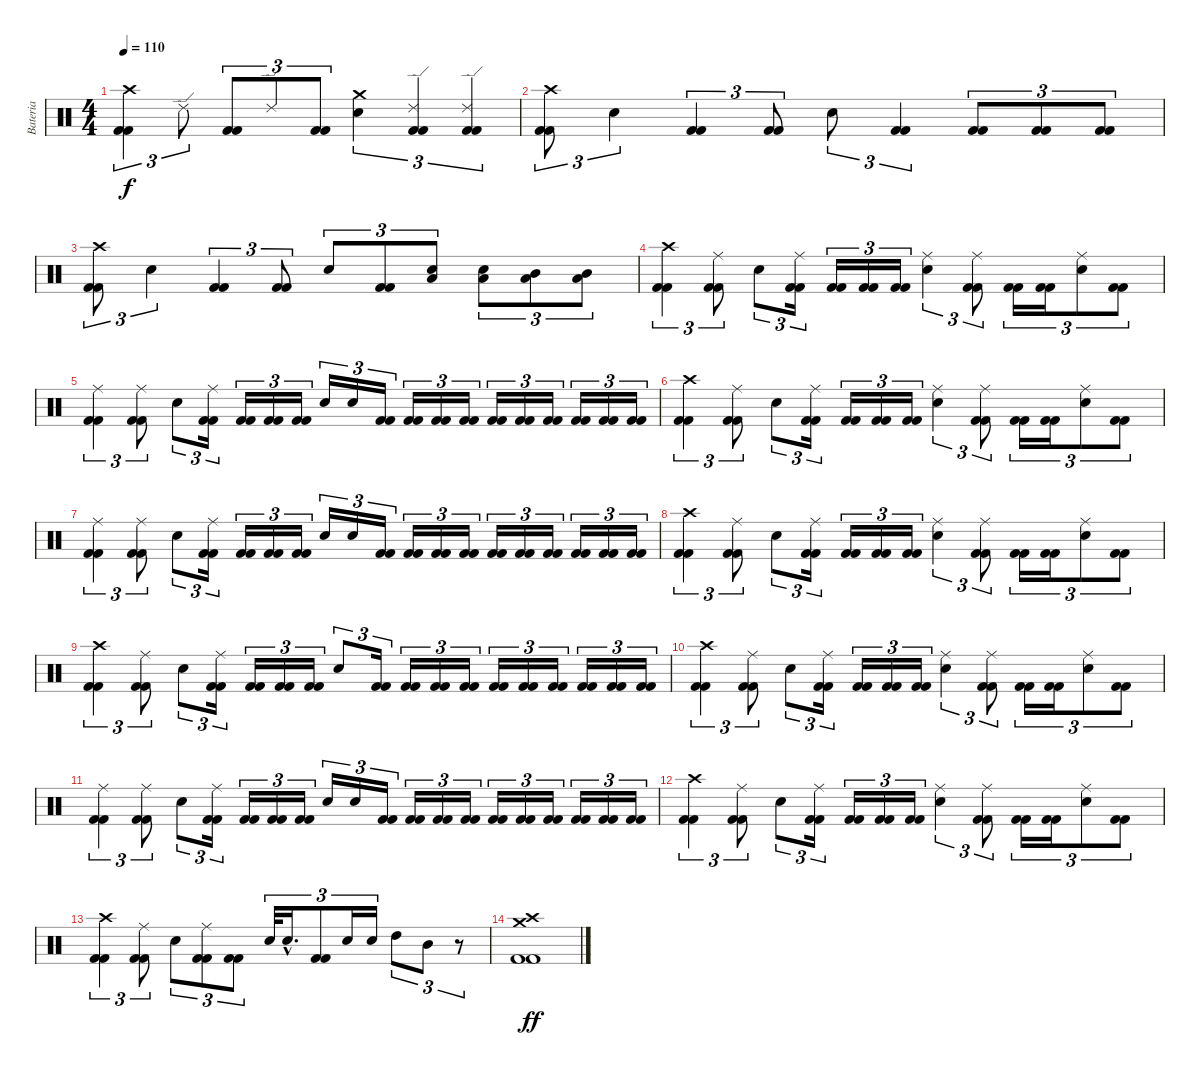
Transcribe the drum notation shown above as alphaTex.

\track ("Bateria" "Bateria") {instrument percussion}
\staff {score}
\articulation defaults
\ts (4 4)
\tempo 110
\clef neutral
\ks c
("Crash high (hit)" "Kick (hit) 2" "Kick (hit) 2").4{tu (3 2) dy f} "Ride (edge) 2".8{tu (3 2)} ("Kick (hit) 2" "Kick (hit) 2").8{tu (3 2)} "Ride (edge) 2".8{tu (3 2)} ("Kick (hit) 2" "Kick (hit) 2").8{tu (3 2)} ("Crash medium (hit)" "Electric Snare (hit)").4{tu (3 2)} ("Ride (edge) 2" "Kick (hit) 2" "Kick (hit) 2").4{tu (3 2)} ("Ride (edge) 2" "Kick (hit) 2" "Kick (hit) 2").4{tu (3 2)} |
("Crash high (hit)" "Kick (hit) 2" "Kick (hit) 2").8{tu (3 2)} "Electric Snare (hit)".4{tu (3 2)} ("Kick (hit) 2" "Kick (hit) 2").4{tu (3 2)} ("Kick (hit) 2" "Kick (hit) 2").8{tu (3 2)} "Electric Snare (hit)".8{tu (3 2)} ("Kick (hit) 2" "Kick (hit) 2").4{tu (3 2)} ("Kick (hit) 2" "Kick (hit) 2").8{tu (3 2)} ("Kick (hit) 2" "Kick (hit) 2").8{tu (3 2)} ("Kick (hit) 2" "Kick (hit) 2").8{tu (3 2)} |
("Crash high (hit)" "Kick (hit) 2" "Kick (hit) 2").8{tu (3 2)} "Electric Snare (hit)".4{tu (3 2)} ("Kick (hit) 2" "Kick (hit) 2").4{tu (3 2)} ("Kick (hit) 2" "Kick (hit) 2").8{tu (3 2)} "Electric Snare (hit)".8{tu (3 2)} ("Kick (hit) 2" "Kick (hit) 2").8{tu (3 2)} ("Electric Snare (hit)" "Low Tom (hit)").8{tu (3 2)} ("Electric Snare (hit)" "Low Tom (hit)").8{tu (3 2)} ("Low Tom (hit)" "Mid Tom (hit)").8{tu (3 2)} ("Low Tom (hit)" "Mid Tom (hit)").8{tu (3 2)} |
("Crash high (hit)" "Kick (hit) 2" "Kick (hit) 2").4{tu (3 2)} ("Ride (middle)" "Kick (hit) 2" "Kick (hit) 2").8{tu (3 2)} "Electric Snare (hit)".8{tu (3 2)} ("Ride (middle)" "Kick (hit) 2" "Kick (hit) 2").16{tu (3 2)} ("Kick (hit) 2" "Kick (hit) 2").16{tu (3 2)} ("Kick (hit) 2" "Kick (hit) 2").16{tu (3 2)} ("Kick (hit) 2" "Kick (hit) 2").16{tu (3 2)} ("Ride (middle)" "Electric Snare (hit)").4{tu (3 2)} ("Ride (middle)" "Kick (hit) 2" "Kick (hit) 2").8{tu (3 2)} ("Kick (hit) 2" "Kick (hit) 2").16{tu (3 2)} ("Kick (hit) 2" "Kick (hit) 2").16{tu (3 2)} ("Ride (middle)" "Electric Snare (hit)").8{tu (3 2)} ("Kick (hit) 2" "Kick (hit) 2").8{tu (3 2)} |
("Ride (middle)" "Kick (hit) 2" "Kick (hit) 2").4{tu (3 2)} ("Ride (middle)" "Kick (hit) 2" "Kick (hit) 2").8{tu (3 2)} "Electric Snare (hit)".8{tu (3 2)} ("Ride (middle)" "Kick (hit) 2" "Kick (hit) 2").16{tu (3 2)} ("Kick (hit) 2" "Kick (hit) 2").16{tu (3 2)} ("Kick (hit) 2" "Kick (hit) 2").16{tu (3 2)} ("Kick (hit) 2" "Kick (hit) 2").16{tu (3 2)} "Electric Snare (hit)".16{tu (3 2)} "Electric Snare (hit)".16{tu (3 2)} ("Kick (hit) 2" "Kick (hit) 2").16{tu (3 2)} ("Kick (hit) 2" "Kick (hit) 2").16{tu (3 2)} ("Kick (hit) 2" "Kick (hit) 2").16{tu (3 2)} ("Kick (hit) 2" "Kick (hit) 2").16{tu (3 2)} ("Kick (hit) 2" "Kick (hit) 2").16{tu (3 2)} ("Kick (hit) 2" "Kick (hit) 2").16{tu (3 2)} ("Kick (hit) 2" "Kick (hit) 2").16{tu (3 2)} ("Kick (hit) 2" "Kick (hit) 2").16{tu (3 2)} ("Kick (hit) 2" "Kick (hit) 2").16{tu (3 2)} ("Kick (hit) 2" "Kick (hit) 2").16{tu (3 2)} |
("Crash high (hit)" "Kick (hit) 2" "Kick (hit) 2").4{tu (3 2)} ("Ride (middle)" "Kick (hit) 2" "Kick (hit) 2").8{tu (3 2)} "Electric Snare (hit)".8{tu (3 2)} ("Ride (middle)" "Kick (hit) 2" "Kick (hit) 2").16{tu (3 2)} ("Kick (hit) 2" "Kick (hit) 2").16{tu (3 2)} ("Kick (hit) 2" "Kick (hit) 2").16{tu (3 2)} ("Kick (hit) 2" "Kick (hit) 2").16{tu (3 2)} ("Ride (middle)" "Electric Snare (hit)").4{tu (3 2)} ("Ride (middle)" "Kick (hit) 2" "Kick (hit) 2").8{tu (3 2)} ("Kick (hit) 2" "Kick (hit) 2").16{tu (3 2)} ("Kick (hit) 2" "Kick (hit) 2").16{tu (3 2)} ("Ride (middle)" "Electric Snare (hit)").8{tu (3 2)} ("Kick (hit) 2" "Kick (hit) 2").8{tu (3 2)} |
("Ride (middle)" "Kick (hit) 2" "Kick (hit) 2").4{tu (3 2)} ("Ride (middle)" "Kick (hit) 2" "Kick (hit) 2").8{tu (3 2)} "Electric Snare (hit)".8{tu (3 2)} ("Ride (middle)" "Kick (hit) 2" "Kick (hit) 2").16{tu (3 2)} ("Kick (hit) 2" "Kick (hit) 2").16{tu (3 2)} ("Kick (hit) 2" "Kick (hit) 2").16{tu (3 2)} ("Kick (hit) 2" "Kick (hit) 2").16{tu (3 2)} "Electric Snare (hit)".16{tu (3 2)} "Electric Snare (hit)".16{tu (3 2)} ("Kick (hit) 2" "Kick (hit) 2").16{tu (3 2)} ("Kick (hit) 2" "Kick (hit) 2").16{tu (3 2)} ("Kick (hit) 2" "Kick (hit) 2").16{tu (3 2)} ("Kick (hit) 2" "Kick (hit) 2").16{tu (3 2)} ("Kick (hit) 2" "Kick (hit) 2").16{tu (3 2)} ("Kick (hit) 2" "Kick (hit) 2").16{tu (3 2)} ("Kick (hit) 2" "Kick (hit) 2").16{tu (3 2)} ("Kick (hit) 2" "Kick (hit) 2").16{tu (3 2)} ("Kick (hit) 2" "Kick (hit) 2").16{tu (3 2)} ("Kick (hit) 2" "Kick (hit) 2").16{tu (3 2)} |
("Crash high (hit)" "Kick (hit) 2" "Kick (hit) 2").4{tu (3 2)} ("Ride (middle)" "Kick (hit) 2" "Kick (hit) 2").8{tu (3 2)} "Electric Snare (hit)".8{tu (3 2)} ("Ride (middle)" "Kick (hit) 2" "Kick (hit) 2").16{tu (3 2)} ("Kick (hit) 2" "Kick (hit) 2").16{tu (3 2)} ("Kick (hit) 2" "Kick (hit) 2").16{tu (3 2)} ("Kick (hit) 2" "Kick (hit) 2").16{tu (3 2)} ("Ride (middle)" "Electric Snare (hit)").4{tu (3 2)} ("Ride (middle)" "Kick (hit) 2" "Kick (hit) 2").8{tu (3 2)} ("Kick (hit) 2" "Kick (hit) 2").16{tu (3 2)} ("Kick (hit) 2" "Kick (hit) 2").16{tu (3 2)} ("Ride (middle)" "Electric Snare (hit)").8{tu (3 2)} ("Kick (hit) 2" "Kick (hit) 2").8{tu (3 2)} |
("Crash high (hit)" "Kick (hit) 2" "Kick (hit) 2").4{tu (3 2)} ("Ride (middle)" "Kick (hit) 2" "Kick (hit) 2").8{tu (3 2)} "Electric Snare (hit)".8{tu (3 2)} ("Ride (middle)" "Kick (hit) 2" "Kick (hit) 2").16{tu (3 2)} ("Kick (hit) 2" "Kick (hit) 2").16{tu (3 2)} ("Kick (hit) 2" "Kick (hit) 2").16{tu (3 2)} ("Kick (hit) 2" "Kick (hit) 2").16{tu (3 2)} "Electric Snare (hit)".8{tu (3 2)} ("Kick (hit) 2" "Kick (hit) 2").16{tu (3 2)} ("Kick (hit) 2" "Kick (hit) 2").16{tu (3 2)} ("Kick (hit) 2" "Kick (hit) 2").16{tu (3 2)} ("Kick (hit) 2" "Kick (hit) 2").16{tu (3 2)} ("Kick (hit) 2" "Kick (hit) 2").16{tu (3 2)} ("Kick (hit) 2" "Kick (hit) 2").16{tu (3 2)} ("Kick (hit) 2" "Kick (hit) 2").16{tu (3 2)} ("Kick (hit) 2" "Kick (hit) 2").16{tu (3 2)} ("Kick (hit) 2" "Kick (hit) 2").16{tu (3 2)} ("Kick (hit) 2" "Kick (hit) 2").16{tu (3 2)} |
("Crash high (hit)" "Kick (hit) 2" "Kick (hit) 2").4{tu (3 2)} ("Ride (middle)" "Kick (hit) 2" "Kick (hit) 2").8{tu (3 2)} "Electric Snare (hit)".8{tu (3 2)} ("Ride (middle)" "Kick (hit) 2" "Kick (hit) 2").16{tu (3 2)} ("Kick (hit) 2" "Kick (hit) 2").16{tu (3 2)} ("Kick (hit) 2" "Kick (hit) 2").16{tu (3 2)} ("Kick (hit) 2" "Kick (hit) 2").16{tu (3 2)} ("Ride (middle)" "Electric Snare (hit)").4{tu (3 2)} ("Ride (middle)" "Kick (hit) 2" "Kick (hit) 2").8{tu (3 2)} ("Kick (hit) 2" "Kick (hit) 2").16{tu (3 2)} ("Kick (hit) 2" "Kick (hit) 2").16{tu (3 2)} ("Ride (middle)" "Electric Snare (hit)").8{tu (3 2)} ("Kick (hit) 2" "Kick (hit) 2").8{tu (3 2)} |
("Ride (middle)" "Kick (hit) 2" "Kick (hit) 2").4{tu (3 2)} ("Ride (middle)" "Kick (hit) 2" "Kick (hit) 2").8{tu (3 2)} "Electric Snare (hit)".8{tu (3 2)} ("Ride (middle)" "Kick (hit) 2" "Kick (hit) 2").16{tu (3 2)} ("Kick (hit) 2" "Kick (hit) 2").16{tu (3 2)} ("Kick (hit) 2" "Kick (hit) 2").16{tu (3 2)} ("Kick (hit) 2" "Kick (hit) 2").16{tu (3 2)} "Electric Snare (hit)".16{tu (3 2)} "Electric Snare (hit)".16{tu (3 2)} ("Kick (hit) 2" "Kick (hit) 2").16{tu (3 2)} ("Kick (hit) 2" "Kick (hit) 2").16{tu (3 2)} ("Kick (hit) 2" "Kick (hit) 2").16{tu (3 2)} ("Kick (hit) 2" "Kick (hit) 2").16{tu (3 2)} ("Kick (hit) 2" "Kick (hit) 2").16{tu (3 2)} ("Kick (hit) 2" "Kick (hit) 2").16{tu (3 2)} ("Kick (hit) 2" "Kick (hit) 2").16{tu (3 2)} ("Kick (hit) 2" "Kick (hit) 2").16{tu (3 2)} ("Kick (hit) 2" "Kick (hit) 2").16{tu (3 2)} ("Kick (hit) 2" "Kick (hit) 2").16{tu (3 2)} |
("Crash high (hit)" "Kick (hit) 2" "Kick (hit) 2").4{tu (3 2)} ("Ride (middle)" "Kick (hit) 2" "Kick (hit) 2").8{tu (3 2)} "Electric Snare (hit)".8{tu (3 2)} ("Ride (middle)" "Kick (hit) 2" "Kick (hit) 2").16{tu (3 2)} ("Kick (hit) 2" "Kick (hit) 2").16{tu (3 2)} ("Kick (hit) 2" "Kick (hit) 2").16{tu (3 2)} ("Kick (hit) 2" "Kick (hit) 2").16{tu (3 2)} ("Ride (middle)" "Electric Snare (hit)").4{tu (3 2)} ("Ride (middle)" "Kick (hit) 2" "Kick (hit) 2").8{tu (3 2)} ("Kick (hit) 2" "Kick (hit) 2").16{tu (3 2)} ("Kick (hit) 2" "Kick (hit) 2").16{tu (3 2)} ("Ride (middle)" "Electric Snare (hit)").8{tu (3 2)} ("Kick (hit) 2" "Kick (hit) 2").8{tu (3 2)} |
("Crash high (hit)" "Kick (hit) 2" "Kick (hit) 2").4{tu (3 2)} ("Ride (middle)" "Kick (hit) 2" "Kick (hit) 2").8{tu (3 2)} "Electric Snare (hit)".8{tu (3 2)} ("Ride (middle)" "Kick (hit) 2" "Kick (hit) 2").8{tu (3 2)} ("Kick (hit) 2" "Kick (hit) 2").8{tu (3 2)} "Electric Snare (hit)".32{tu (3 2)} "Electric Snare (hit)"{hac}.16{d tu (3 2)} ("Kick (hit) 2" "Kick (hit) 2").8{tu (3 2)} "Electric Snare (hit)".16{tu (3 2)} "Electric Snare (hit)".16{tu (3 2)} "High Tom (hit)".8{tu (3 2)} "Mid Tom (hit)".8{tu (3 2)} r.8{tu (3 2)} |
("Crash high (hit)" "Crash medium (hit)" "Kick (hit) 2" "Kick (hit) 2").1{dy ff}
